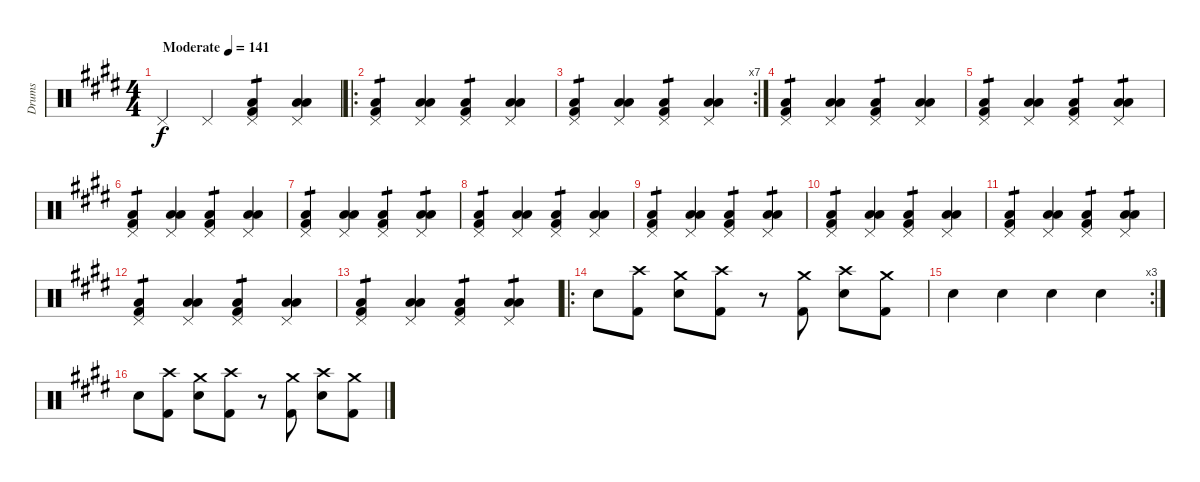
\track ("Drums" "Drums") {instrument percussion}
\staff {score}
\articulation defaults
\ts (4 4)
\tempo (141 "Moderate")
\clef neutral
\ks e "Pedal Hi-Hat (hit)".4{dy f} "Pedal Hi-Hat (hit)".4
("Kick (hit) 2" "Pedal Hi-Hat (hit)" "Low Floor Tom (hit)").4{tp 1} ("Low Floor Tom (hit)" "Pedal Hi-Hat (hit)" "Low Floor Tom (hit)").4 |
\ro
("Kick (hit) 2" "Pedal Hi-Hat (hit)" "Low Floor Tom (hit)").4{tp 1} ("Low Floor Tom (hit)" "Pedal Hi-Hat (hit)" "Low Floor Tom (hit)").4 ("Kick (hit) 2" "Pedal Hi-Hat (hit)" "Low Floor Tom (hit)").4{tp 1} ("Low Floor Tom (hit)" "Pedal Hi-Hat (hit)" "Low Floor Tom (hit)").4 |
\rc 7
("Kick (hit) 2" "Pedal Hi-Hat (hit)" "Low Floor Tom (hit)").4{tp 1} ("Low Floor Tom (hit)" "Pedal Hi-Hat (hit)" "Low Floor Tom (hit)").4 ("Kick (hit) 2" "Pedal Hi-Hat (hit)" "Low Floor Tom (hit)").4{tp 1} ("Low Floor Tom (hit)" "Pedal Hi-Hat (hit)" "Low Floor Tom (hit)").4 |
("Kick (hit) 2" "Pedal Hi-Hat (hit)" "Low Floor Tom (hit)").4{tp 1} ("Low Floor Tom (hit)" "Pedal Hi-Hat (hit)" "Low Floor Tom (hit)").4 ("Kick (hit) 2" "Pedal Hi-Hat (hit)" "Low Floor Tom (hit)").4{tp 1} ("Low Floor Tom (hit)" "Pedal Hi-Hat (hit)" "Low Floor Tom (hit)").4 |
("Kick (hit) 2" "Pedal Hi-Hat (hit)" "Low Floor Tom (hit)").4{tp 1} ("Low Floor Tom (hit)" "Pedal Hi-Hat (hit)" "Low Floor Tom (hit)").4 ("Kick (hit) 2" "Pedal Hi-Hat (hit)" "Low Floor Tom (hit)").4{tp 1} ("Low Floor Tom (hit)" "Pedal Hi-Hat (hit)" "Low Floor Tom (hit)").4{tp 1} |
("Kick (hit) 2" "Pedal Hi-Hat (hit)" "Low Floor Tom (hit)").4{tp 1} ("Low Floor Tom (hit)" "Pedal Hi-Hat (hit)" "Low Floor Tom (hit)").4 ("Kick (hit) 2" "Pedal Hi-Hat (hit)" "Low Floor Tom (hit)").4{tp 1} ("Low Floor Tom (hit)" "Pedal Hi-Hat (hit)" "Low Floor Tom (hit)").4 |
("Kick (hit) 2" "Pedal Hi-Hat (hit)" "Low Floor Tom (hit)").4{tp 1} ("Low Floor Tom (hit)" "Pedal Hi-Hat (hit)" "Low Floor Tom (hit)").4 ("Kick (hit) 2" "Pedal Hi-Hat (hit)" "Low Floor Tom (hit)").4{tp 1} ("Low Floor Tom (hit)" "Pedal Hi-Hat (hit)" "Low Floor Tom (hit)").4{tp 1} |
("Kick (hit) 2" "Pedal Hi-Hat (hit)" "Low Floor Tom (hit)").4{tp 1} ("Low Floor Tom (hit)" "Pedal Hi-Hat (hit)" "Low Floor Tom (hit)").4 ("Kick (hit) 2" "Pedal Hi-Hat (hit)" "Low Floor Tom (hit)").4{tp 1} ("Low Floor Tom (hit)" "Pedal Hi-Hat (hit)" "Low Floor Tom (hit)").4 |
("Kick (hit) 2" "Pedal Hi-Hat (hit)" "Low Floor Tom (hit)").4{tp 1} ("Low Floor Tom (hit)" "Pedal Hi-Hat (hit)" "Low Floor Tom (hit)").4 ("Kick (hit) 2" "Pedal Hi-Hat (hit)" "Low Floor Tom (hit)").4{tp 1} ("Low Floor Tom (hit)" "Pedal Hi-Hat (hit)" "Low Floor Tom (hit)").4{tp 1} |
("Kick (hit) 2" "Pedal Hi-Hat (hit)" "Low Floor Tom (hit)").4{tp 1} ("Low Floor Tom (hit)" "Pedal Hi-Hat (hit)" "Low Floor Tom (hit)").4 ("Kick (hit) 2" "Pedal Hi-Hat (hit)" "Low Floor Tom (hit)").4{tp 1} ("Low Floor Tom (hit)" "Pedal Hi-Hat (hit)" "Low Floor Tom (hit)").4 |
("Kick (hit) 2" "Pedal Hi-Hat (hit)" "Low Floor Tom (hit)").4{tp 1} ("Low Floor Tom (hit)" "Pedal Hi-Hat (hit)" "Low Floor Tom (hit)").4 ("Kick (hit) 2" "Pedal Hi-Hat (hit)" "Low Floor Tom (hit)").4{tp 1} ("Low Floor Tom (hit)" "Pedal Hi-Hat (hit)" "Low Floor Tom (hit)").4{tp 1} |
("Kick (hit) 2" "Pedal Hi-Hat (hit)" "Low Floor Tom (hit)").4{tp 1} ("Low Floor Tom (hit)" "Pedal Hi-Hat (hit)" "Low Floor Tom (hit)").4 ("Kick (hit) 2" "Pedal Hi-Hat (hit)" "Low Floor Tom (hit)").4{tp 1} ("Low Floor Tom (hit)" "Pedal Hi-Hat (hit)" "Low Floor Tom (hit)").4 |
("Kick (hit) 2" "Pedal Hi-Hat (hit)" "Low Floor Tom (hit)").4{tp 1} ("Low Floor Tom (hit)" "Pedal Hi-Hat (hit)" "Low Floor Tom (hit)").4 ("Kick (hit) 2" "Pedal Hi-Hat (hit)" "Low Floor Tom (hit)").4{tp 1} ("Low Floor Tom (hit)" "Pedal Hi-Hat (hit)" "Low Floor Tom (hit)").4{tp 1} |
\ro "Snare (hit) 2".8
("Kick (hit) 2" "Crash high (hit)").8 ("Snare (hit) 2" "Crash medium (hit)").8 ("Kick (hit) 2" "Crash high (hit)").8 r.8 ("Kick (hit) 2" "Crash medium (hit)").8 ("Snare (hit) 2" "Crash high (hit)").8 ("Kick (hit) 2" "Crash medium (hit)").8 |
\rc 3 "Snare (hit) 2".4 "Snare (hit) 2".4 "Snare (hit) 2".4 "Snare (hit) 2".4
|
"Snare (hit) 2".8 ("Kick (hit) 2" "Crash high (hit)").8 ("Snare (hit) 2" "Crash medium (hit)").8 ("Kick (hit) 2" "Crash high (hit)").8 r.8 ("Kick (hit) 2" "Crash medium (hit)").8 ("Snare (hit) 2" "Crash high (hit)").8 ("Kick (hit) 2" "Crash medium (hit)").8
